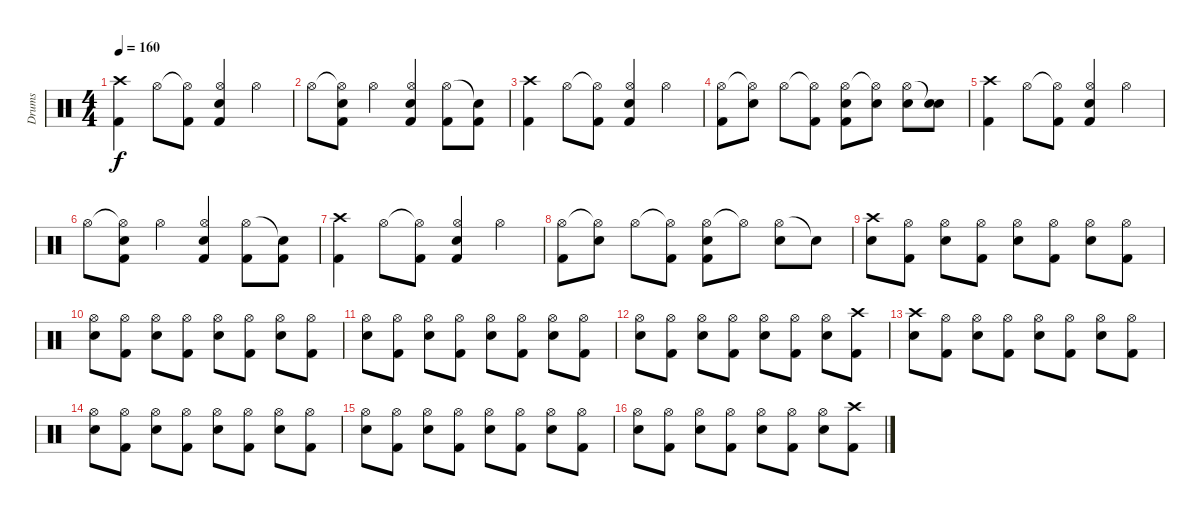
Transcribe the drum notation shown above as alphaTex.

\track ("Drums" "Drums") {instrument percussion}
\staff {score}
\articulation defaults
\ts (4 4)
\tempo 160
\clef neutral
\ks c
("Crash high (hit)" "Kick (hit) 2").4{dy f} "Hi-Hat (open)".8 ("Hi-Hat (open)"{t} "Kick (hit) 2").8 ("Hi-Hat (open)" "Snare (hit) 2" "Kick (hit) 2").4 "Hi-Hat (open)".4 |
"Hi-Hat (open)".8 ("Hi-Hat (open)"{t} "Snare (hit) 2" "Kick (hit) 2").8 "Hi-Hat (open)".4 ("Hi-Hat (open)" "Snare (hit) 2" "Kick (hit) 2").4 ("Hi-Hat (open)" "Kick (hit) 2").8 ("Snare (hit)"{t} "Kick (hit) 2").8 |
("Crash high (hit)" "Kick (hit) 2").4 "Hi-Hat (open)".8 ("Hi-Hat (open)"{t} "Kick (hit) 2").8 ("Hi-Hat (open)" "Snare (hit) 2" "Kick (hit) 2").4 "Hi-Hat (open)".4 |
("Hi-Hat (open)" "Kick (hit) 2").8 ("Hi-Hat (open)"{t} "Snare (hit) 2").8 "Hi-Hat (open)".8 ("Hi-Hat (open)"{t} "Kick (hit) 2").8 ("Hi-Hat (open)" "Snare (hit) 2" "Kick (hit) 2").8 ("Hi-Hat (open)"{t} "Snare (hit) 2").8 ("Hi-Hat (open)" "Snare (hit) 2").8 ("Snare (hit)"{t} "Snare (hit) 2").8 |
("Crash high (hit)" "Kick (hit) 2").4 "Hi-Hat (open)".8 ("Hi-Hat (open)"{t} "Kick (hit) 2").8 ("Hi-Hat (open)" "Snare (hit) 2" "Kick (hit) 2").4 "Hi-Hat (open)".4 |
"Hi-Hat (open)".8 ("Hi-Hat (open)"{t} "Snare (hit) 2" "Kick (hit) 2").8 "Hi-Hat (open)".4 ("Hi-Hat (open)" "Snare (hit) 2" "Kick (hit) 2").4 ("Hi-Hat (open)" "Kick (hit) 2").8 ("Snare (hit)"{t} "Kick (hit) 2").8 |
("Crash high (hit)" "Kick (hit) 2").4 "Hi-Hat (open)".8 ("Hi-Hat (open)"{t} "Kick (hit) 2").8 ("Hi-Hat (open)" "Snare (hit) 2" "Kick (hit) 2").4 "Hi-Hat (open)".4 |
("Hi-Hat (open)" "Kick (hit) 2").8 ("Hi-Hat (open)"{t} "Snare (hit) 2").8 "Hi-Hat (open)".8 ("Hi-Hat (open)"{t} "Kick (hit) 2").8 ("Hi-Hat (open)" "Snare (hit) 2" "Kick (hit) 2").8 "Hi-Hat (open)"{t}.8 ("Hi-Hat (open)" "Snare (hit) 2"{tr (38 32)}).8 "Snare (hit)"{t}.8 |
("Crash high (hit)" "Snare (hit) 2").8 ("Hi-Hat (open)" "Kick (hit) 2").8 ("Hi-Hat (open)" "Snare (hit) 2").8 ("Hi-Hat (open)" "Kick (hit) 2").8 ("Hi-Hat (open)" "Snare (hit) 2").8 ("Hi-Hat (open)" "Kick (hit) 2").8 ("Hi-Hat (open)" "Snare (hit) 2").8 ("Hi-Hat (open)" "Kick (hit) 2").8 |
("Hi-Hat (open)" "Snare (hit) 2").8 ("Hi-Hat (open)" "Kick (hit) 2").8 ("Hi-Hat (open)" "Snare (hit) 2").8 ("Hi-Hat (open)" "Kick (hit) 2").8 ("Hi-Hat (open)" "Snare (hit) 2").8 ("Hi-Hat (open)" "Kick (hit) 2").8 ("Hi-Hat (open)" "Snare (hit) 2").8 ("Hi-Hat (open)" "Kick (hit) 2").8 |
("Hi-Hat (open)" "Snare (hit) 2").8 ("Hi-Hat (open)" "Kick (hit) 2").8 ("Hi-Hat (open)" "Snare (hit) 2").8 ("Hi-Hat (open)" "Kick (hit) 2").8 ("Hi-Hat (open)" "Snare (hit) 2").8 ("Hi-Hat (open)" "Kick (hit) 2").8 ("Hi-Hat (open)" "Snare (hit) 2").8 ("Hi-Hat (open)" "Kick (hit) 2").8 |
("Hi-Hat (open)" "Snare (hit) 2").8 ("Hi-Hat (open)" "Kick (hit) 2").8 ("Hi-Hat (open)" "Snare (hit) 2").8 ("Hi-Hat (open)" "Kick (hit) 2").8 ("Hi-Hat (open)" "Snare (hit) 2").8 ("Hi-Hat (open)" "Kick (hit) 2").8 ("Hi-Hat (open)" "Snare (hit) 2").8 ("Crash high (hit)" "Kick (hit) 2").8 |
("Crash high (hit)" "Snare (hit) 2").8 ("Hi-Hat (open)" "Kick (hit) 2").8 ("Hi-Hat (open)" "Snare (hit) 2").8 ("Hi-Hat (open)" "Kick (hit) 2").8 ("Hi-Hat (open)" "Snare (hit) 2").8 ("Hi-Hat (open)" "Kick (hit) 2").8 ("Hi-Hat (open)" "Snare (hit) 2").8 ("Hi-Hat (open)" "Kick (hit) 2").8 |
("Hi-Hat (open)" "Snare (hit) 2").8 ("Hi-Hat (open)" "Kick (hit) 2").8 ("Hi-Hat (open)" "Snare (hit) 2").8 ("Hi-Hat (open)" "Kick (hit) 2").8 ("Hi-Hat (open)" "Snare (hit) 2").8 ("Hi-Hat (open)" "Kick (hit) 2").8 ("Hi-Hat (open)" "Snare (hit) 2").8 ("Hi-Hat (open)" "Kick (hit) 2").8 |
("Hi-Hat (open)" "Snare (hit) 2").8 ("Hi-Hat (open)" "Kick (hit) 2").8 ("Hi-Hat (open)" "Snare (hit) 2").8 ("Hi-Hat (open)" "Kick (hit) 2").8 ("Hi-Hat (open)" "Snare (hit) 2").8 ("Hi-Hat (open)" "Kick (hit) 2").8 ("Hi-Hat (open)" "Snare (hit) 2").8 ("Hi-Hat (open)" "Kick (hit) 2").8 |
("Hi-Hat (open)" "Snare (hit) 2").8 ("Hi-Hat (open)" "Kick (hit) 2").8 ("Hi-Hat (open)" "Snare (hit) 2").8 ("Hi-Hat (open)" "Kick (hit) 2").8 ("Hi-Hat (open)" "Snare (hit) 2").8 ("Hi-Hat (open)" "Kick (hit) 2").8 ("Hi-Hat (open)" "Snare (hit) 2").8 ("Crash high (hit)" "Kick (hit) 2").8
